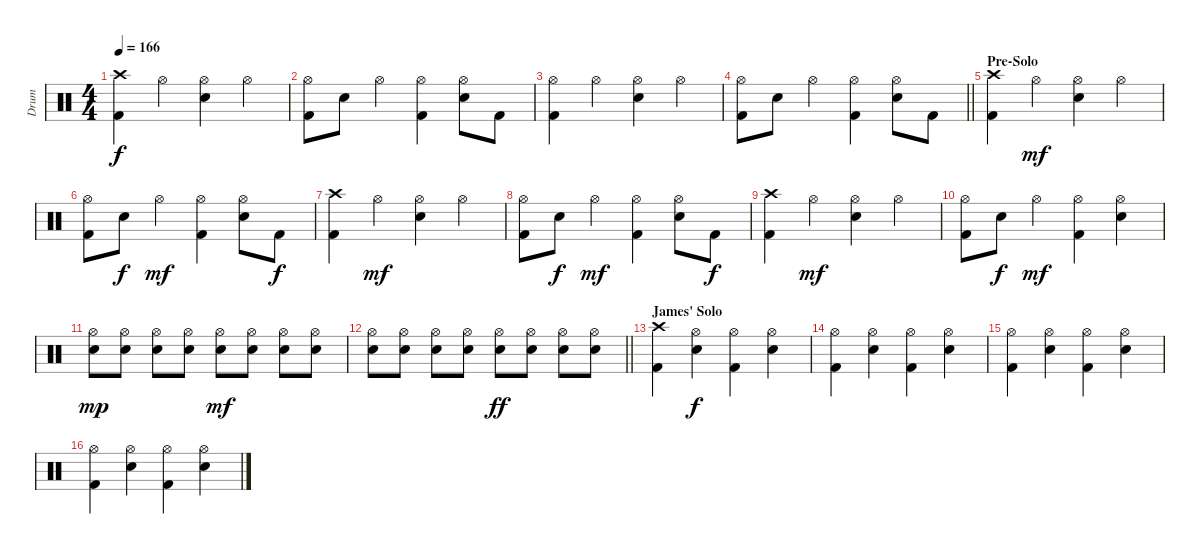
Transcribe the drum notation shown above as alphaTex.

\track ("Drum" "Drum") {instrument percussion}
\staff {score}
\articulation defaults
\ts (4 4)
\tempo 166
\clef neutral
\ks c
("Crash high (hit)" "Kick (hit) 2").4{dy f} "Hi-Hat (open)".4 ("Hi-Hat (open)" "Snare (hit) 2").4 "Hi-Hat (open)".4 |
("Hi-Hat (open)" "Kick (hit) 2").8 "Snare (hit) 2".8 "Hi-Hat (open)".4 ("Hi-Hat (open)" "Kick (hit) 2").4 ("Hi-Hat (open)" "Snare (hit) 2").8 "Kick (hit) 2".8 |
("Hi-Hat (open)" "Kick (hit) 2").4 "Hi-Hat (open)".4 ("Hi-Hat (open)" "Snare (hit) 2").4 "Hi-Hat (open)".4 |
\barLineRight lightlight
("Hi-Hat (open)" "Kick (hit) 2").8 "Snare (hit) 2".8 "Hi-Hat (open)".4 ("Hi-Hat (open)" "Kick (hit) 2").4 ("Hi-Hat (open)" "Snare (hit) 2").8 "Kick (hit) 2".8 |
\section ("" "Pre-Solo")
("Crash high (hit)" "Kick (hit) 2").4 "Hi-Hat (open)".4{dy mf} ("Hi-Hat (open)" "Snare (hit) 2").4 "Hi-Hat (open)".4 |
("Hi-Hat (open)" "Kick (hit) 2").8 "Snare (hit) 2".8{dy f} "Hi-Hat (open)".4{dy mf} ("Hi-Hat (open)" "Kick (hit) 2").4 ("Hi-Hat (open)" "Snare (hit) 2").8 "Kick (hit) 2".8{dy f} |
("Crash high (hit)" "Kick (hit) 2").4 "Hi-Hat (open)".4{dy mf} ("Hi-Hat (open)" "Snare (hit) 2").4 "Hi-Hat (open)".4 |
("Hi-Hat (open)" "Kick (hit) 2").8 "Snare (hit) 2".8{dy f} "Hi-Hat (open)".4{dy mf} ("Hi-Hat (open)" "Kick (hit) 2").4 ("Hi-Hat (open)" "Snare (hit) 2").8 "Kick (hit) 2".8{dy f} |
("Crash high (hit)" "Kick (hit) 2").4 "Hi-Hat (open)".4{dy mf} ("Hi-Hat (open)" "Snare (hit) 2").4 "Hi-Hat (open)".4 |
("Hi-Hat (open)" "Kick (hit) 2").8 "Snare (hit) 2".8{dy f} "Hi-Hat (open)".4{dy mf} ("Hi-Hat (open)" "Kick (hit) 2").4 ("Hi-Hat (open)" "Snare (hit) 2").4 |
("Hi-Hat (open)" "Snare (hit) 2").8{dy mp} ("Hi-Hat (open)" "Snare (hit) 2").8 ("Hi-Hat (open)" "Snare (hit) 2").8 ("Hi-Hat (open)" "Snare (hit) 2").8 ("Hi-Hat (open)" "Snare (hit) 2").8{dy mf} ("Hi-Hat (open)" "Snare (hit) 2").8 ("Hi-Hat (open)" "Snare (hit) 2").8 ("Hi-Hat (open)" "Snare (hit) 2").8 |
\barLineRight lightlight
("Hi-Hat (open)" "Snare (hit) 2").8 ("Hi-Hat (open)" "Snare (hit) 2").8 ("Hi-Hat (open)" "Snare (hit) 2").8 ("Hi-Hat (open)" "Snare (hit) 2").8 ("Hi-Hat (open)" "Snare (hit) 2").8{dy ff} ("Hi-Hat (open)" "Snare (hit) 2").8 ("Hi-Hat (open)" "Snare (hit) 2").8 ("Hi-Hat (open)" "Snare (hit) 2").8 |
\section ("" "James' Solo")
("Crash high (hit)" "Kick (hit) 2").4 ("Hi-Hat (open)" "Snare (hit) 2").4{dy f} ("Hi-Hat (open)" "Kick (hit) 2").4 ("Hi-Hat (open)" "Snare (hit) 2").4 |
("Hi-Hat (open)" "Kick (hit) 2").4 ("Hi-Hat (open)" "Snare (hit) 2").4 ("Hi-Hat (open)" "Kick (hit) 2").4 ("Hi-Hat (open)" "Snare (hit) 2").4 |
("Hi-Hat (open)" "Kick (hit) 2").4 ("Hi-Hat (open)" "Snare (hit) 2").4 ("Hi-Hat (open)" "Kick (hit) 2").4 ("Hi-Hat (open)" "Snare (hit) 2").4 |
("Hi-Hat (open)" "Kick (hit) 2").4 ("Hi-Hat (open)" "Snare (hit) 2").4 ("Hi-Hat (open)" "Kick (hit) 2").4 ("Hi-Hat (open)" "Snare (hit) 2").4
